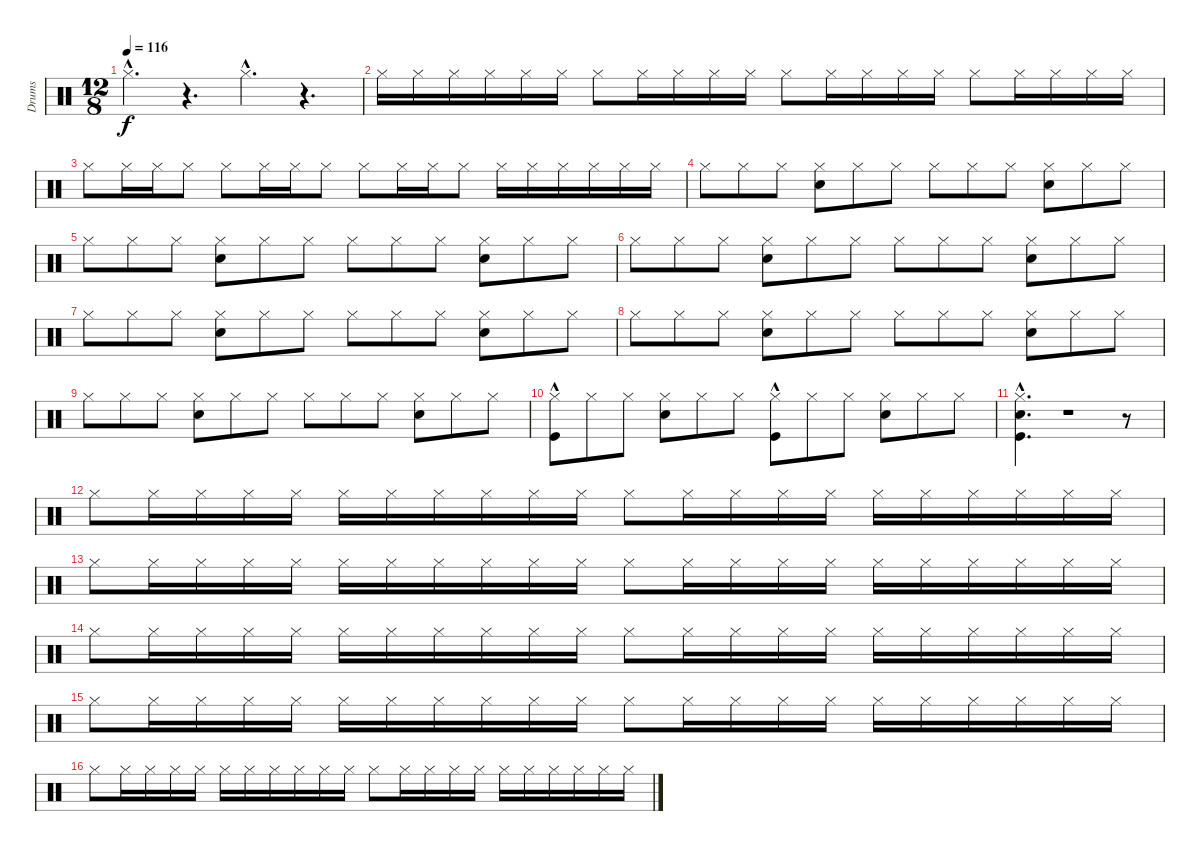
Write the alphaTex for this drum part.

\track ("Drums" "Drums") {instrument percussion}
\staff {score}
\articulation defaults
\ts (12 8)
\tempo 116
\clef neutral
\ks c "Hi-Hat (closed)"{hac}.4{d dy f}
r.4{d} "Hi-Hat (closed)"{hac}.4{d} r.4{d} |
"Hi-Hat (closed)".16 "Hi-Hat (closed)".16 "Hi-Hat (closed)".16 "Hi-Hat (closed)".16 "Hi-Hat (closed)".16 "Hi-Hat (closed)".16 "Hi-Hat (closed)".8 "Hi-Hat (closed)".16 "Hi-Hat (closed)".16 "Hi-Hat (closed)".16 "Hi-Hat (closed)".16 "Hi-Hat (closed)".8 "Hi-Hat (closed)".16 "Hi-Hat (closed)".16 "Hi-Hat (closed)".16 "Hi-Hat (closed)".16 "Hi-Hat (closed)".8 "Hi-Hat (closed)".16 "Hi-Hat (closed)".16 "Hi-Hat (closed)".16 "Hi-Hat (closed)".16 |
"Hi-Hat (closed)".8 "Hi-Hat (closed)".16 "Hi-Hat (closed)".16 "Hi-Hat (closed)".8 "Hi-Hat (closed)".8 "Hi-Hat (closed)".16 "Hi-Hat (closed)".16 "Hi-Hat (closed)".8 "Hi-Hat (closed)".8 "Hi-Hat (closed)".16 "Hi-Hat (closed)".16 "Hi-Hat (closed)".8 "Hi-Hat (closed)".16 "Hi-Hat (closed)".16 "Hi-Hat (closed)".16 "Hi-Hat (closed)".16 "Hi-Hat (closed)".16 "Hi-Hat (closed)".16 |
"Hi-Hat (closed)".8 "Hi-Hat (closed)".8 "Hi-Hat (closed)".8 ("Hi-Hat (closed)" "Snare (hit) 2").8 "Hi-Hat (closed)".8 "Hi-Hat (closed)".8 "Hi-Hat (closed)".8 "Hi-Hat (closed)".8 "Hi-Hat (closed)".8 ("Hi-Hat (closed)" "Snare (hit) 2").8 "Hi-Hat (closed)".8 "Hi-Hat (closed)".8 |
"Hi-Hat (closed)".8 "Hi-Hat (closed)".8 "Hi-Hat (closed)".8 ("Hi-Hat (closed)" "Snare (hit) 2").8 "Hi-Hat (closed)".8 "Hi-Hat (closed)".8 "Hi-Hat (closed)".8 "Hi-Hat (closed)".8 "Hi-Hat (closed)".8 ("Hi-Hat (closed)" "Snare (hit) 2").8 "Hi-Hat (closed)".8 "Hi-Hat (closed)".8 |
"Hi-Hat (closed)".8 "Hi-Hat (closed)".8 "Hi-Hat (closed)".8 ("Hi-Hat (closed)" "Snare (hit) 2").8 "Hi-Hat (closed)".8 "Hi-Hat (closed)".8 "Hi-Hat (closed)".8 "Hi-Hat (closed)".8 "Hi-Hat (closed)".8 ("Hi-Hat (closed)" "Snare (hit) 2").8 "Hi-Hat (closed)".8 "Hi-Hat (closed)".8 |
"Hi-Hat (closed)".8 "Hi-Hat (closed)".8 "Hi-Hat (closed)".8 ("Hi-Hat (closed)" "Snare (hit) 2").8 "Hi-Hat (closed)".8 "Hi-Hat (closed)".8 "Hi-Hat (closed)".8 "Hi-Hat (closed)".8 "Hi-Hat (closed)".8 ("Hi-Hat (closed)" "Snare (hit) 2").8 "Hi-Hat (closed)".8 "Hi-Hat (closed)".8 |
"Hi-Hat (closed)".8 "Hi-Hat (closed)".8 "Hi-Hat (closed)".8 ("Hi-Hat (closed)" "Snare (hit) 2").8 "Hi-Hat (closed)".8 "Hi-Hat (closed)".8 "Hi-Hat (closed)".8 "Hi-Hat (closed)".8 "Hi-Hat (closed)".8 ("Hi-Hat (closed)" "Snare (hit) 2").8 "Hi-Hat (closed)".8 "Hi-Hat (closed)".8 |
"Hi-Hat (closed)".8 "Hi-Hat (closed)".8 "Hi-Hat (closed)".8 ("Hi-Hat (closed)" "Snare (hit) 2").8 "Hi-Hat (closed)".8 "Hi-Hat (closed)".8 "Hi-Hat (closed)".8 "Hi-Hat (closed)".8 "Hi-Hat (closed)".8 ("Hi-Hat (closed)" "Snare (hit) 2").8 "Hi-Hat (closed)".8 "Hi-Hat (closed)".8 |
("Hi-Hat (closed)" "Kick (hit)"{hac}).8 "Hi-Hat (closed)".8 "Hi-Hat (closed)".8 ("Hi-Hat (closed)" "Snare (hit) 2").8 "Hi-Hat (closed)".8 "Hi-Hat (closed)".8 ("Hi-Hat (closed)" "Kick (hit)"{hac}).8 "Hi-Hat (closed)".8 "Hi-Hat (closed)".8 ("Hi-Hat (closed)" "Snare (hit) 2").8 "Hi-Hat (closed)".8 "Hi-Hat (closed)".8 |
("Hi-Hat (closed)"{hac} "Snare (hit) 2"{hac} "Kick (hit)"{hac}).4{d} r.1 r.8 |
"Hi-Hat (closed)".8 "Hi-Hat (closed)".16 "Hi-Hat (closed)".16 "Hi-Hat (closed)".16 "Hi-Hat (closed)".16 "Hi-Hat (closed)".16 "Hi-Hat (closed)".16 "Hi-Hat (closed)".16 "Hi-Hat (closed)".16 "Hi-Hat (closed)".16 "Hi-Hat (closed)".16 "Hi-Hat (closed)".8 "Hi-Hat (closed)".16 "Hi-Hat (closed)".16 "Hi-Hat (closed)".16 "Hi-Hat (closed)".16 "Hi-Hat (closed)".16 "Hi-Hat (closed)".16 "Hi-Hat (closed)".16 "Hi-Hat (closed)".16 "Hi-Hat (closed)".16 "Hi-Hat (closed)".16 |
"Hi-Hat (closed)".8 "Hi-Hat (closed)".16 "Hi-Hat (closed)".16 "Hi-Hat (closed)".16 "Hi-Hat (closed)".16 "Hi-Hat (closed)".16 "Hi-Hat (closed)".16 "Hi-Hat (closed)".16 "Hi-Hat (closed)".16 "Hi-Hat (closed)".16 "Hi-Hat (closed)".16 "Hi-Hat (closed)".8 "Hi-Hat (closed)".16 "Hi-Hat (closed)".16 "Hi-Hat (closed)".16 "Hi-Hat (closed)".16 "Hi-Hat (closed)".16 "Hi-Hat (closed)".16 "Hi-Hat (closed)".16 "Hi-Hat (closed)".16 "Hi-Hat (closed)".16 "Hi-Hat (closed)".16 |
"Hi-Hat (closed)".8 "Hi-Hat (closed)".16 "Hi-Hat (closed)".16 "Hi-Hat (closed)".16 "Hi-Hat (closed)".16 "Hi-Hat (closed)".16 "Hi-Hat (closed)".16 "Hi-Hat (closed)".16 "Hi-Hat (closed)".16 "Hi-Hat (closed)".16 "Hi-Hat (closed)".16 "Hi-Hat (closed)".8 "Hi-Hat (closed)".16 "Hi-Hat (closed)".16 "Hi-Hat (closed)".16 "Hi-Hat (closed)".16 "Hi-Hat (closed)".16 "Hi-Hat (closed)".16 "Hi-Hat (closed)".16 "Hi-Hat (closed)".16 "Hi-Hat (closed)".16 "Hi-Hat (closed)".16 |
"Hi-Hat (closed)".8 "Hi-Hat (closed)".16 "Hi-Hat (closed)".16 "Hi-Hat (closed)".16 "Hi-Hat (closed)".16 "Hi-Hat (closed)".16 "Hi-Hat (closed)".16 "Hi-Hat (closed)".16 "Hi-Hat (closed)".16 "Hi-Hat (closed)".16 "Hi-Hat (closed)".16 "Hi-Hat (closed)".8 "Hi-Hat (closed)".16 "Hi-Hat (closed)".16 "Hi-Hat (closed)".16 "Hi-Hat (closed)".16 "Hi-Hat (closed)".16 "Hi-Hat (closed)".16 "Hi-Hat (closed)".16 "Hi-Hat (closed)".16 "Hi-Hat (closed)".16 "Hi-Hat (closed)".16 |
"Hi-Hat (closed)".8 "Hi-Hat (closed)".16 "Hi-Hat (closed)".16 "Hi-Hat (closed)".16 "Hi-Hat (closed)".16 "Hi-Hat (closed)".16 "Hi-Hat (closed)".16 "Hi-Hat (closed)".16 "Hi-Hat (closed)".16 "Hi-Hat (closed)".16 "Hi-Hat (closed)".16 "Hi-Hat (closed)".8 "Hi-Hat (closed)".16 "Hi-Hat (closed)".16 "Hi-Hat (closed)".16 "Hi-Hat (closed)".16 "Hi-Hat (closed)".16 "Hi-Hat (closed)".16 "Hi-Hat (closed)".16 "Hi-Hat (closed)".16 "Hi-Hat (closed)".16 "Hi-Hat (closed)".16
